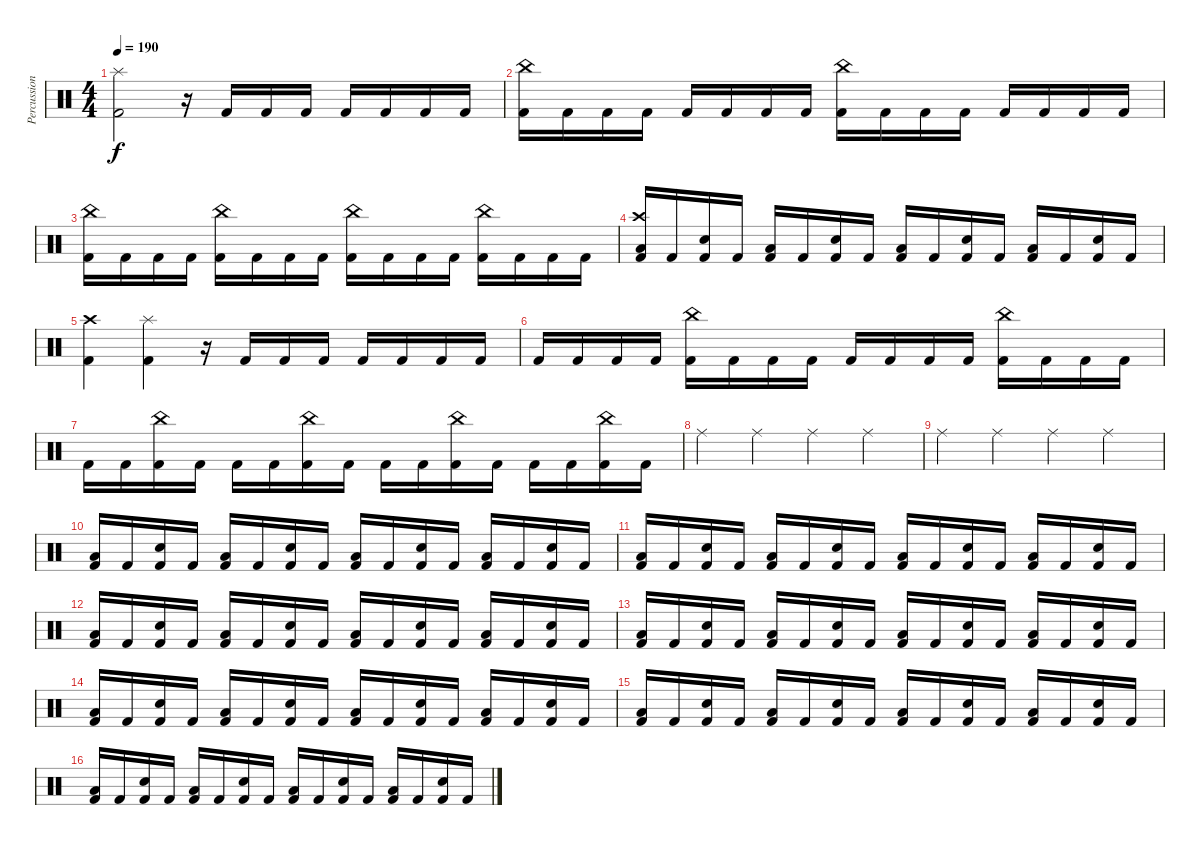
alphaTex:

\track ("Percussion" "Percussion") {instrument percussion}
\staff {score}
\articulation defaults
\ts (4 4)
\tempo 190
\clef neutral
\ks c
("Splash (hit)" "Kick (hit) 2").2{dy f} r.16 "Kick (hit) 2".16 "Kick (hit) 2".16 "Kick (hit) 2".16 "Kick (hit) 2".16 "Kick (hit) 2".16 "Kick (hit) 2".16 "Kick (hit) 2".16 |
("China (hit)" "Kick (hit) 2").16 "Kick (hit) 2".16 "Kick (hit) 2".16 "Kick (hit) 2".16 "Kick (hit) 2".16 "Kick (hit) 2".16 "Kick (hit) 2".16 "Kick (hit) 2".16 ("China (hit)" "Kick (hit) 2").16 "Kick (hit) 2".16 "Kick (hit) 2".16 "Kick (hit) 2".16 "Kick (hit) 2".16 "Kick (hit) 2".16 "Kick (hit) 2".16 "Kick (hit) 2".16 |
("China (hit)" "Kick (hit) 2").16 "Kick (hit) 2".16 "Kick (hit) 2".16 "Kick (hit) 2".16 ("China (hit)" "Kick (hit) 2").16 "Kick (hit) 2".16 "Kick (hit) 2".16 "Kick (hit) 2".16 ("China (hit)" "Kick (hit) 2").16 "Kick (hit) 2".16 "Kick (hit) 2".16 "Kick (hit) 2".16 ("China (hit)" "Kick (hit) 2").16 "Kick (hit) 2".16 "Kick (hit) 2".16 "Kick (hit) 2".16 |
("Crash high (hit)" "Low Floor Tom (hit)" "Kick (hit) 2").16 "Kick (hit) 2".16 ("Snare (hit) 2" "Kick (hit) 2").16 "Kick (hit) 2".16 ("Low Floor Tom (hit)" "Kick (hit) 2").16 "Kick (hit) 2".16 ("Snare (hit) 2" "Kick (hit) 2").16 "Kick (hit) 2".16 ("Low Floor Tom (hit)" "Kick (hit) 2").16 "Kick (hit) 2".16 ("Snare (hit) 2" "Kick (hit) 2").16 "Kick (hit) 2".16 ("Low Floor Tom (hit)" "Kick (hit) 2").16 "Kick (hit) 2".16 ("Snare (hit) 2" "Kick (hit) 2").16 "Kick (hit) 2".16 |
("Crash high (hit)" "Kick (hit) 2").4 ("Splash (hit)" "Kick (hit) 2").4 r.16 "Kick (hit) 2".16 "Kick (hit) 2".16 "Kick (hit) 2".16 "Kick (hit) 2".16 "Kick (hit) 2".16 "Kick (hit) 2".16 "Kick (hit) 2".16 |
"Kick (hit) 2".16 "Kick (hit) 2".16 "Kick (hit) 2".16 "Kick (hit) 2".16 ("China (hit)" "Kick (hit) 2").16 "Kick (hit) 2".16 "Kick (hit) 2".16 "Kick (hit) 2".16 "Kick (hit) 2".16 "Kick (hit) 2".16 "Kick (hit) 2".16 "Kick (hit) 2".16 ("China (hit)" "Kick (hit) 2").16 "Kick (hit) 2".16 "Kick (hit) 2".16 "Kick (hit) 2".16 |
"Kick (hit) 2".16 "Kick (hit) 2".16 ("China (hit)" "Kick (hit) 2").16 "Kick (hit) 2".16 "Kick (hit) 2".16 "Kick (hit) 2".16 ("China (hit)" "Kick (hit) 2").16 "Kick (hit) 2".16 "Kick (hit) 2".16 "Kick (hit) 2".16 ("China (hit)" "Kick (hit) 2").16 "Kick (hit) 2".16 "Kick (hit) 2".16 "Kick (hit) 2".16 ("China (hit)" "Kick (hit) 2").16 "Kick (hit) 2".16 |
"Ride (middle)".4 "Ride (middle)".4 "Ride (middle)".4 "Ride (middle)".4 |
"Ride (middle)".4 "Ride (middle)".4 "Ride (middle)".4 "Ride (middle)".4 |
("Low Floor Tom (hit)" "Kick (hit) 2").16 "Kick (hit) 2".16 ("Snare (hit) 2" "Kick (hit) 2").16 "Kick (hit) 2".16 ("Low Floor Tom (hit)" "Kick (hit) 2").16 "Kick (hit) 2".16 ("Snare (hit) 2" "Kick (hit) 2").16 "Kick (hit) 2".16 ("Low Floor Tom (hit)" "Kick (hit) 2").16 "Kick (hit) 2".16 ("Snare (hit) 2" "Kick (hit) 2").16 "Kick (hit) 2".16 ("Low Floor Tom (hit)" "Kick (hit) 2").16 "Kick (hit) 2".16 ("Snare (hit) 2" "Kick (hit) 2").16 "Kick (hit) 2".16 |
("Low Floor Tom (hit)" "Kick (hit) 2").16 "Kick (hit) 2".16 ("Snare (hit) 2" "Kick (hit) 2").16 "Kick (hit) 2".16 ("Low Floor Tom (hit)" "Kick (hit) 2").16 "Kick (hit) 2".16 ("Snare (hit) 2" "Kick (hit) 2").16 "Kick (hit) 2".16 ("Low Floor Tom (hit)" "Kick (hit) 2").16 "Kick (hit) 2".16 ("Snare (hit) 2" "Kick (hit) 2").16 "Kick (hit) 2".16 ("Low Floor Tom (hit)" "Kick (hit) 2").16 "Kick (hit) 2".16 ("Snare (hit) 2" "Kick (hit) 2").16 "Kick (hit) 2".16 |
("Low Floor Tom (hit)" "Kick (hit) 2").16 "Kick (hit) 2".16 ("Snare (hit) 2" "Kick (hit) 2").16 "Kick (hit) 2".16 ("Low Floor Tom (hit)" "Kick (hit) 2").16 "Kick (hit) 2".16 ("Snare (hit) 2" "Kick (hit) 2").16 "Kick (hit) 2".16 ("Low Floor Tom (hit)" "Kick (hit) 2").16 "Kick (hit) 2".16 ("Snare (hit) 2" "Kick (hit) 2").16 "Kick (hit) 2".16 ("Low Floor Tom (hit)" "Kick (hit) 2").16 "Kick (hit) 2".16 ("Snare (hit) 2" "Kick (hit) 2").16 "Kick (hit) 2".16 |
("Low Floor Tom (hit)" "Kick (hit) 2").16 "Kick (hit) 2".16 ("Snare (hit) 2" "Kick (hit) 2").16 "Kick (hit) 2".16 ("Low Floor Tom (hit)" "Kick (hit) 2").16 "Kick (hit) 2".16 ("Snare (hit) 2" "Kick (hit) 2").16 "Kick (hit) 2".16 ("Low Floor Tom (hit)" "Kick (hit) 2").16 "Kick (hit) 2".16 ("Snare (hit) 2" "Kick (hit) 2").16 "Kick (hit) 2".16 ("Low Floor Tom (hit)" "Kick (hit) 2").16 "Kick (hit) 2".16 ("Snare (hit) 2" "Kick (hit) 2").16 "Kick (hit) 2".16 |
("Low Floor Tom (hit)" "Kick (hit) 2").16 "Kick (hit) 2".16 ("Snare (hit) 2" "Kick (hit) 2").16 "Kick (hit) 2".16 ("Low Floor Tom (hit)" "Kick (hit) 2").16 "Kick (hit) 2".16 ("Snare (hit) 2" "Kick (hit) 2").16 "Kick (hit) 2".16 ("Low Floor Tom (hit)" "Kick (hit) 2").16 "Kick (hit) 2".16 ("Snare (hit) 2" "Kick (hit) 2").16 "Kick (hit) 2".16 ("Low Floor Tom (hit)" "Kick (hit) 2").16 "Kick (hit) 2".16 ("Snare (hit) 2" "Kick (hit) 2").16 "Kick (hit) 2".16 |
("Low Floor Tom (hit)" "Kick (hit) 2").16 "Kick (hit) 2".16 ("Snare (hit) 2" "Kick (hit) 2").16 "Kick (hit) 2".16 ("Low Floor Tom (hit)" "Kick (hit) 2").16 "Kick (hit) 2".16 ("Snare (hit) 2" "Kick (hit) 2").16 "Kick (hit) 2".16 ("Low Floor Tom (hit)" "Kick (hit) 2").16 "Kick (hit) 2".16 ("Snare (hit) 2" "Kick (hit) 2").16 "Kick (hit) 2".16 ("Low Floor Tom (hit)" "Kick (hit) 2").16 "Kick (hit) 2".16 ("Snare (hit) 2" "Kick (hit) 2").16 "Kick (hit) 2".16 |
("Low Floor Tom (hit)" "Kick (hit) 2").16 "Kick (hit) 2".16 ("Snare (hit) 2" "Kick (hit) 2").16 "Kick (hit) 2".16 ("Low Floor Tom (hit)" "Kick (hit) 2").16 "Kick (hit) 2".16 ("Snare (hit) 2" "Kick (hit) 2").16 "Kick (hit) 2".16 ("Low Floor Tom (hit)" "Kick (hit) 2").16 "Kick (hit) 2".16 ("Snare (hit) 2" "Kick (hit) 2").16 "Kick (hit) 2".16 ("Low Floor Tom (hit)" "Kick (hit) 2").16 "Kick (hit) 2".16 ("Snare (hit) 2" "Kick (hit) 2").16 "Kick (hit) 2".16
